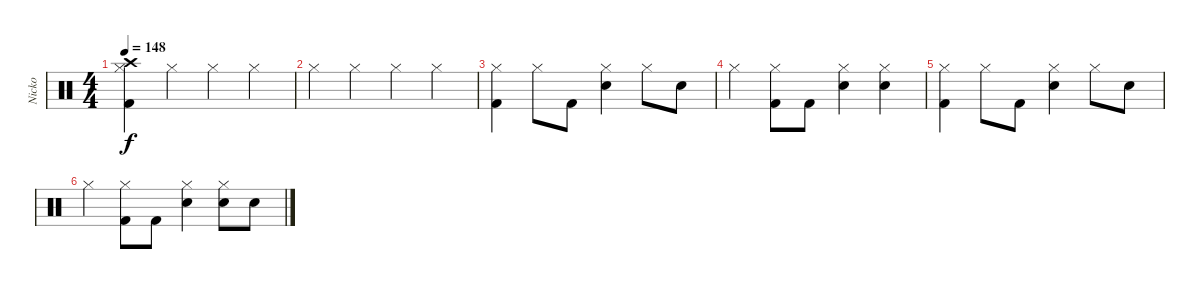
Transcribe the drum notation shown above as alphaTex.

\track ("Nicko" "Nicko") {instrument percussion}
\staff {score}
\articulation defaults
\ts (4 4)
\tempo 148
\clef neutral
\ks c
("Hi-Hat (closed)" "Crash high (hit)" "Kick (hit) 2").4{dy f} "Hi-Hat (closed)".4 "Hi-Hat (closed)".4 "Hi-Hat (closed)".4 |
"Hi-Hat (closed)".4 "Hi-Hat (closed)".4 "Hi-Hat (closed)".4 "Hi-Hat (closed)".4 |
("Hi-Hat (closed)" "Kick (hit) 2").4 "Hi-Hat (closed)".8 "Kick (hit) 2".8 ("Hi-Hat (closed)" "Snare (hit) 2").4 "Hi-Hat (closed)".8 "Snare (hit) 2".8 |
"Hi-Hat (closed)".4 ("Hi-Hat (closed)" "Kick (hit) 2").8 "Kick (hit) 2".8 ("Hi-Hat (closed)" "Snare (hit) 2").4 ("Hi-Hat (closed)" "Snare (hit) 2").4 |
("Hi-Hat (closed)" "Kick (hit) 2").4 "Hi-Hat (closed)".8 "Kick (hit) 2".8 ("Hi-Hat (closed)" "Snare (hit) 2").4 "Hi-Hat (closed)".8 "Snare (hit) 2".8 |
"Hi-Hat (closed)".4 ("Hi-Hat (closed)" "Kick (hit) 2").8 "Kick (hit) 2".8 ("Hi-Hat (closed)" "Snare (hit) 2").4 ("Hi-Hat (closed)" "Snare (hit) 2").8 "Snare (hit) 2".8
